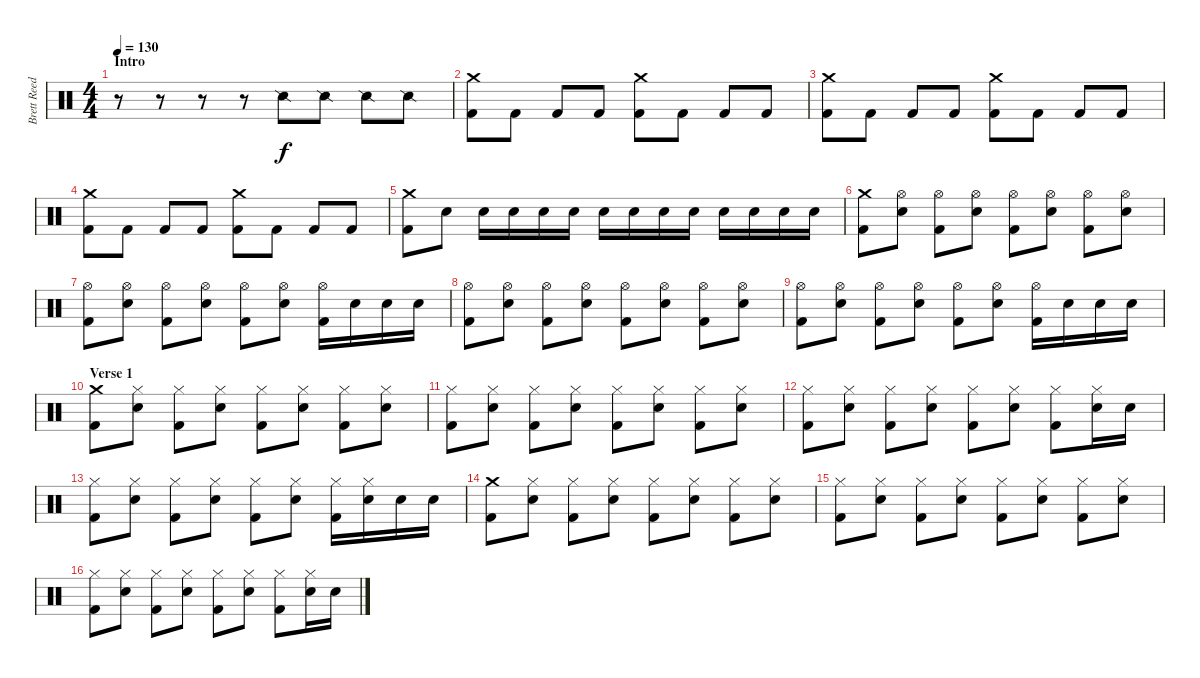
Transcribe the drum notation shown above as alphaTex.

\track ("Brett Reed" "Brett Reed") {instrument percussion}
\staff {score}
\articulation defaults
\ts (4 4)
\section ("" "Intro")
\tempo 130
\clef neutral
\ks c
r.8{dy f} r.8 r.8 r.8 "Snare (side stick) 2".8 "Snare (side stick) 2".8 "Snare (side stick) 2".8 "Snare (side stick) 2".8 |
("Crash medium (hit)" "Kick (hit) 2").8 "Kick (hit) 2".8 "Kick (hit) 2".8 "Kick (hit) 2".8 ("Crash medium (hit)" "Kick (hit) 2").8 "Kick (hit) 2".8 "Kick (hit) 2".8 "Kick (hit) 2".8 |
("Crash medium (hit)" "Kick (hit) 2").8 "Kick (hit) 2".8 "Kick (hit) 2".8 "Kick (hit) 2".8 ("Crash medium (hit)" "Kick (hit) 2").8 "Kick (hit) 2".8 "Kick (hit) 2".8 "Kick (hit) 2".8 |
("Crash medium (hit)" "Kick (hit) 2").8 "Kick (hit) 2".8 "Kick (hit) 2".8 "Kick (hit) 2".8 ("Crash medium (hit)" "Kick (hit) 2").8 "Kick (hit) 2".8 "Kick (hit) 2".8 "Kick (hit) 2".8 |
("Crash medium (hit)" "Kick (hit) 2").8 "Snare (hit) 2".8 "Snare (hit) 2".16 "Snare (hit) 2".16 "Snare (hit) 2".16 "Snare (hit) 2".16 "Snare (hit) 2".16 "Snare (hit) 2".16 "Snare (hit) 2".16 "Snare (hit) 2".16 "Snare (hit) 2".16 "Snare (hit) 2".16 "Snare (hit) 2".16 "Snare (hit) 2".16 |
("Crash medium (hit)" "Kick (hit) 2").8 ("Hi-Hat (open)" "Snare (hit) 2").8 ("Hi-Hat (open)" "Kick (hit) 2").8 ("Hi-Hat (open)" "Snare (hit) 2").8 ("Hi-Hat (open)" "Kick (hit) 2").8 ("Hi-Hat (open)" "Snare (hit) 2").8 ("Hi-Hat (open)" "Kick (hit) 2").8 ("Hi-Hat (open)" "Snare (hit) 2").8 |
("Hi-Hat (open)" "Kick (hit) 2").8 ("Hi-Hat (open)" "Snare (hit) 2").8 ("Hi-Hat (open)" "Kick (hit) 2").8 ("Hi-Hat (open)" "Snare (hit) 2").8 ("Hi-Hat (open)" "Kick (hit) 2").8 ("Hi-Hat (open)" "Snare (hit) 2").8 ("Hi-Hat (open)" "Kick (hit) 2").16 "Snare (hit) 2".16 "Snare (hit) 2".16 "Snare (hit) 2".16 |
("Hi-Hat (open)" "Kick (hit) 2").8 ("Hi-Hat (open)" "Snare (hit) 2").8 ("Hi-Hat (open)" "Kick (hit) 2").8 ("Hi-Hat (open)" "Snare (hit) 2").8 ("Hi-Hat (open)" "Kick (hit) 2").8 ("Hi-Hat (open)" "Snare (hit) 2").8 ("Hi-Hat (open)" "Kick (hit) 2").8 ("Hi-Hat (open)" "Snare (hit) 2").8 |
("Hi-Hat (open)" "Kick (hit) 2").8 ("Hi-Hat (open)" "Snare (hit) 2").8 ("Hi-Hat (open)" "Kick (hit) 2").8 ("Hi-Hat (open)" "Snare (hit) 2").8 ("Hi-Hat (open)" "Kick (hit) 2").8 ("Hi-Hat (open)" "Snare (hit) 2").8 ("Hi-Hat (open)" "Kick (hit) 2").16 "Snare (hit) 2".16 "Snare (hit) 2".16 "Snare (hit) 2".16 |
\section ("" "Verse 1")
("Crash medium (hit)" "Kick (hit) 2").8 ("Hi-Hat (closed)" "Snare (hit) 2").8 ("Hi-Hat (closed)" "Kick (hit) 2").8 ("Hi-Hat (closed)" "Snare (hit) 2").8 ("Hi-Hat (closed)" "Kick (hit) 2").8 ("Hi-Hat (closed)" "Snare (hit) 2").8 ("Hi-Hat (closed)" "Kick (hit) 2").8 ("Hi-Hat (closed)" "Snare (hit) 2").8 |
("Hi-Hat (closed)" "Kick (hit) 2").8 ("Hi-Hat (closed)" "Snare (hit) 2").8 ("Hi-Hat (closed)" "Kick (hit) 2").8 ("Hi-Hat (closed)" "Snare (hit) 2").8 ("Hi-Hat (closed)" "Kick (hit) 2").8 ("Hi-Hat (closed)" "Snare (hit) 2").8 ("Hi-Hat (closed)" "Kick (hit) 2").8 ("Hi-Hat (closed)" "Snare (hit) 2").8 |
("Hi-Hat (closed)" "Kick (hit) 2").8 ("Hi-Hat (closed)" "Snare (hit) 2").8 ("Hi-Hat (closed)" "Kick (hit) 2").8 ("Hi-Hat (closed)" "Snare (hit) 2").8 ("Hi-Hat (closed)" "Kick (hit) 2").8 ("Hi-Hat (closed)" "Snare (hit) 2").8 ("Hi-Hat (closed)" "Kick (hit) 2").8 ("Hi-Hat (closed)" "Snare (hit) 2").16 "Snare (hit) 2".16 |
("Hi-Hat (closed)" "Kick (hit) 2").8 ("Hi-Hat (closed)" "Snare (hit) 2").8 ("Hi-Hat (closed)" "Kick (hit) 2").8 ("Hi-Hat (closed)" "Snare (hit) 2").8 ("Hi-Hat (closed)" "Kick (hit) 2").8 ("Hi-Hat (closed)" "Snare (hit) 2").8 ("Hi-Hat (closed)" "Kick (hit) 2").16 ("Hi-Hat (closed)" "Snare (hit) 2").16 "Snare (hit) 2".16 "Snare (hit) 2".16 |
("Crash medium (hit)" "Kick (hit) 2").8 ("Hi-Hat (closed)" "Snare (hit) 2").8 ("Hi-Hat (closed)" "Kick (hit) 2").8 ("Hi-Hat (closed)" "Snare (hit) 2").8 ("Hi-Hat (closed)" "Kick (hit) 2").8 ("Hi-Hat (closed)" "Snare (hit) 2").8 ("Hi-Hat (closed)" "Kick (hit) 2").8 ("Hi-Hat (closed)" "Snare (hit) 2").8 |
("Hi-Hat (closed)" "Kick (hit) 2").8 ("Hi-Hat (closed)" "Snare (hit) 2").8 ("Hi-Hat (closed)" "Kick (hit) 2").8 ("Hi-Hat (closed)" "Snare (hit) 2").8 ("Hi-Hat (closed)" "Kick (hit) 2").8 ("Hi-Hat (closed)" "Snare (hit) 2").8 ("Hi-Hat (closed)" "Kick (hit) 2").8 ("Hi-Hat (closed)" "Snare (hit) 2").8 |
("Hi-Hat (closed)" "Kick (hit) 2").8 ("Hi-Hat (closed)" "Snare (hit) 2").8 ("Hi-Hat (closed)" "Kick (hit) 2").8 ("Hi-Hat (closed)" "Snare (hit) 2").8 ("Hi-Hat (closed)" "Kick (hit) 2").8 ("Hi-Hat (closed)" "Snare (hit) 2").8 ("Hi-Hat (closed)" "Kick (hit) 2").8 ("Hi-Hat (closed)" "Snare (hit) 2").16 "Snare (hit) 2".16
